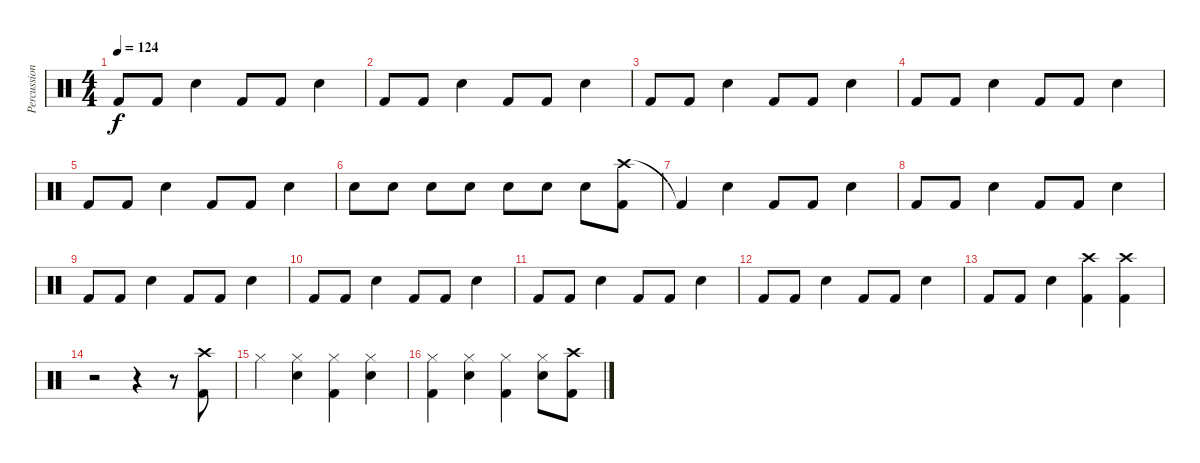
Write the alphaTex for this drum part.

\track ("Percussion" "Percussion") {instrument percussion}
\staff {score}
\articulation defaults
\ts (4 4)
\tempo 124
\clef neutral
\ks c "Kick (hit) 2".8{dy f} "Kick (hit) 2".8 "Snare (hit) 2".4 "Kick (hit) 2".8 "Kick (hit) 2".8 "Snare (hit) 2".4
|
"Kick (hit) 2".8 "Kick (hit) 2".8 "Snare (hit) 2".4 "Kick (hit) 2".8 "Kick (hit) 2".8 "Snare (hit) 2".4 |
"Kick (hit) 2".8 "Kick (hit) 2".8 "Snare (hit) 2".4 "Kick (hit) 2".8 "Kick (hit) 2".8 "Snare (hit) 2".4 |
"Kick (hit) 2".8 "Kick (hit) 2".8 "Snare (hit) 2".4 "Kick (hit) 2".8 "Kick (hit) 2".8 "Snare (hit) 2".4 |
"Kick (hit) 2".8 "Kick (hit) 2".8 "Snare (hit) 2".4 "Kick (hit) 2".8 "Kick (hit) 2".8 "Snare (hit) 2".4 |
"Snare (hit) 2".8 "Snare (hit) 2".8 "Snare (hit) 2".8 "Snare (hit) 2".8 "Snare (hit) 2".8 "Snare (hit) 2".8 "Snare (hit) 2".8 ("Crash high (hit)" "Kick (hit) 2").8 |
"Kick (hit) 2"{t}.4 "Snare (hit) 2".4 "Kick (hit) 2".8 "Kick (hit) 2".8 "Snare (hit) 2".4 |
"Kick (hit) 2".8 "Kick (hit) 2".8 "Snare (hit) 2".4 "Kick (hit) 2".8 "Kick (hit) 2".8 "Snare (hit) 2".4 |
"Kick (hit) 2".8 "Kick (hit) 2".8 "Snare (hit) 2".4 "Kick (hit) 2".8 "Kick (hit) 2".8 "Snare (hit) 2".4 |
"Kick (hit) 2".8 "Kick (hit) 2".8 "Snare (hit) 2".4 "Kick (hit) 2".8 "Kick (hit) 2".8 "Snare (hit) 2".4 |
"Kick (hit) 2".8 "Kick (hit) 2".8 "Snare (hit) 2".4 "Kick (hit) 2".8 "Kick (hit) 2".8 "Snare (hit) 2".4 |
"Kick (hit) 2".8 "Kick (hit) 2".8 "Snare (hit) 2".4 "Kick (hit) 2".8 "Kick (hit) 2".8 "Snare (hit) 2".4 |
"Kick (hit) 2".8 "Kick (hit) 2".8 "Snare (hit) 2".4 ("Crash high (hit)" "Kick (hit) 2").4 ("Crash high (hit)" "Kick (hit) 2").4 |
r.2 r.4 r.8 ("Crash high (hit)" "Kick (hit) 2").8 |
"Hi-Hat (closed)".4 ("Hi-Hat (closed)" "Snare (hit) 2").4 ("Hi-Hat (closed)" "Kick (hit) 2").4 ("Hi-Hat (closed)" "Snare (hit) 2").4 |
("Hi-Hat (closed)" "Kick (hit) 2").4 ("Hi-Hat (closed)" "Snare (hit) 2").4 ("Hi-Hat (closed)" "Kick (hit) 2").4 ("Hi-Hat (closed)" "Snare (hit) 2").8 ("Crash high (hit)" "Kick (hit) 2").8
